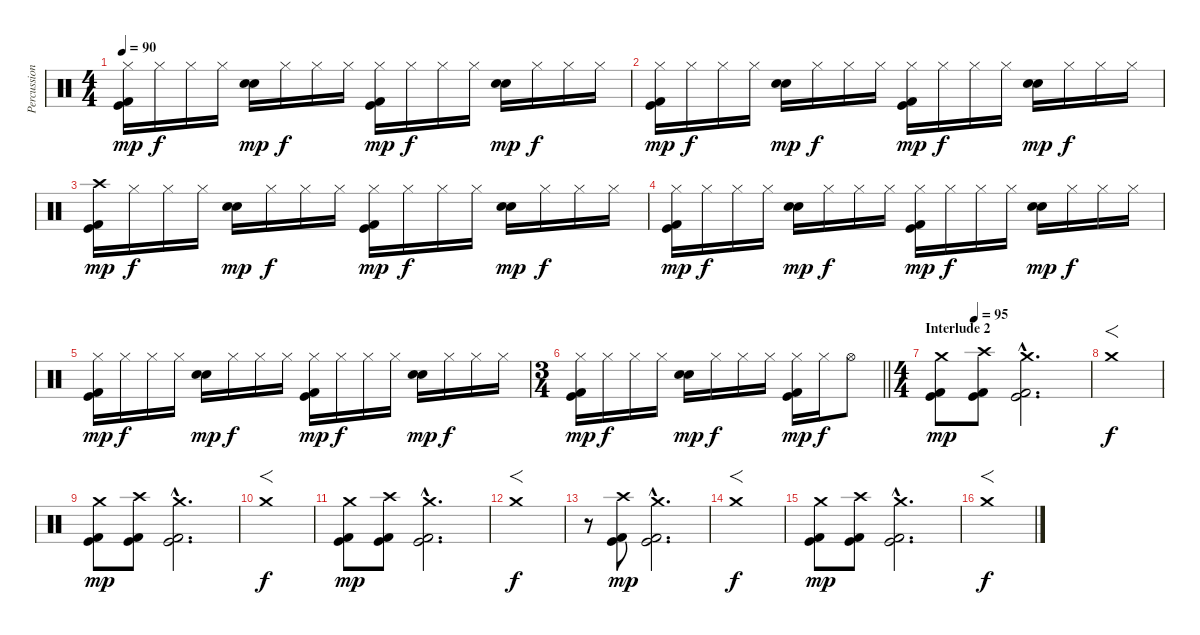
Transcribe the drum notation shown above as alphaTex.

\track ("Percussion" "Percussion") {instrument percussion}
\staff {score}
\articulation defaults
\ts (4 4)
\tempo 90
\clef neutral
\ks c
("Hi-Hat (closed)" "Kick (hit)" "Kick (hit) 2").16{dy mp} "Hi-Hat (closed)".16{dy f} "Hi-Hat (closed)".16 "Hi-Hat (closed)".16 ("Snare (hit) 2" "Electric Snare (hit)").16{dy mp} "Hi-Hat (closed)".16{dy f} "Hi-Hat (closed)".16 "Hi-Hat (closed)".16 ("Hi-Hat (closed)" "Kick (hit)" "Kick (hit) 2").16{dy mp} "Hi-Hat (closed)".16{dy f} "Hi-Hat (closed)".16 "Hi-Hat (closed)".16 ("Snare (hit) 2" "Electric Snare (hit)").16{dy mp} "Hi-Hat (closed)".16{dy f} "Hi-Hat (closed)".16 "Hi-Hat (closed)".16 |
("Hi-Hat (closed)" "Kick (hit)" "Kick (hit) 2").16{dy mp} "Hi-Hat (closed)".16{dy f} "Hi-Hat (closed)".16 "Hi-Hat (closed)".16 ("Snare (hit) 2" "Electric Snare (hit)").16{dy mp} "Hi-Hat (closed)".16{dy f} "Hi-Hat (closed)".16 "Hi-Hat (closed)".16 ("Hi-Hat (closed)" "Kick (hit)" "Kick (hit) 2").16{dy mp} "Hi-Hat (closed)".16{dy f} "Hi-Hat (closed)".16 "Hi-Hat (closed)".16 ("Snare (hit) 2" "Electric Snare (hit)").16{dy mp} "Hi-Hat (closed)".16{dy f} "Hi-Hat (closed)".16 "Hi-Hat (closed)".16 |
("Crash high (hit)" "Kick (hit)" "Kick (hit) 2").16{dy mp} "Hi-Hat (closed)".16{dy f} "Hi-Hat (closed)".16 "Hi-Hat (closed)".16 ("Snare (hit) 2" "Electric Snare (hit)").16{dy mp} "Hi-Hat (closed)".16{dy f} "Hi-Hat (closed)".16 "Hi-Hat (closed)".16 ("Hi-Hat (closed)" "Kick (hit)" "Kick (hit) 2").16{dy mp} "Hi-Hat (closed)".16{dy f} "Hi-Hat (closed)".16 "Hi-Hat (closed)".16 ("Snare (hit) 2" "Electric Snare (hit)").16{dy mp} "Hi-Hat (closed)".16{dy f} "Hi-Hat (closed)".16 "Hi-Hat (closed)".16 |
("Hi-Hat (closed)" "Kick (hit)" "Kick (hit) 2").16{dy mp} "Hi-Hat (closed)".16{dy f} "Hi-Hat (closed)".16 "Hi-Hat (closed)".16 ("Snare (hit) 2" "Electric Snare (hit)").16{dy mp} "Hi-Hat (closed)".16{dy f} "Hi-Hat (closed)".16 "Hi-Hat (closed)".16 ("Hi-Hat (closed)" "Kick (hit)" "Kick (hit) 2").16{dy mp} "Hi-Hat (closed)".16{dy f} "Hi-Hat (closed)".16 "Hi-Hat (closed)".16 ("Snare (hit) 2" "Electric Snare (hit)").16{dy mp} "Hi-Hat (closed)".16{dy f} "Hi-Hat (closed)".16 "Hi-Hat (closed)".16 |
("Hi-Hat (closed)" "Kick (hit)" "Kick (hit) 2").16{dy mp} "Hi-Hat (closed)".16{dy f} "Hi-Hat (closed)".16 "Hi-Hat (closed)".16 ("Snare (hit) 2" "Electric Snare (hit)").16{dy mp} "Hi-Hat (closed)".16{dy f} "Hi-Hat (closed)".16 "Hi-Hat (closed)".16 ("Hi-Hat (closed)" "Kick (hit)" "Kick (hit) 2").16{dy mp} "Hi-Hat (closed)".16{dy f} "Hi-Hat (closed)".16 "Hi-Hat (closed)".16 ("Snare (hit) 2" "Electric Snare (hit)").16{dy mp} "Hi-Hat (closed)".16{dy f} "Hi-Hat (closed)".16 "Hi-Hat (closed)".16 |
\ts (3 4)
\barLineRight lightlight
("Hi-Hat (closed)" "Kick (hit)" "Kick (hit) 2").16{dy mp} "Hi-Hat (closed)".16{dy f} "Hi-Hat (closed)".16 "Hi-Hat (closed)".16 ("Snare (hit) 2" "Electric Snare (hit)").16{dy mp} "Hi-Hat (closed)".16{dy f} "Hi-Hat (closed)".16 "Hi-Hat (closed)".16 ("Hi-Hat (closed)" "Kick (hit)" "Kick (hit) 2").16{dy mp} "Hi-Hat (closed)".16{dy f} "Hi-Hat (open)".8 |
\ts (4 4)
\section ("" "Interlude 2")
\tempo (95 0.25)
("Crash medium (hit)" "Kick (hit)" "Kick (hit) 2").8{dy mp} ("Crash high (hit)" "Kick (hit)" "Kick (hit) 2").8 ("Crash medium (hit)"{hac} "Kick (hit)"{hac} "Kick (hit) 2"{hac}).2{d} |
"Crash medium (hit)".1{f dy f} |
("Crash medium (hit)" "Kick (hit)" "Kick (hit) 2").8{dy mp} ("Crash high (hit)" "Kick (hit)" "Kick (hit) 2").8 ("Crash medium (hit)"{hac} "Kick (hit)"{hac} "Kick (hit) 2"{hac}).2{d} |
"Crash medium (hit)".1{f dy f} |
("Crash medium (hit)" "Kick (hit)" "Kick (hit) 2").8{dy mp} ("Crash high (hit)" "Kick (hit)" "Kick (hit) 2").8 ("Crash medium (hit)"{hac} "Kick (hit)"{hac} "Kick (hit) 2"{hac}).2{d} |
"Crash medium (hit)".1{f dy f} |
r.8 ("Crash high (hit)" "Kick (hit)" "Kick (hit) 2").8{dy mp} ("Crash medium (hit)"{hac} "Kick (hit)"{hac} "Kick (hit) 2"{hac}).2{d} |
"Crash medium (hit)".1{f dy f} |
("Crash medium (hit)" "Kick (hit)" "Kick (hit) 2").8{dy mp} ("Crash high (hit)" "Kick (hit)" "Kick (hit) 2").8 ("Crash medium (hit)"{hac} "Kick (hit)"{hac} "Kick (hit) 2"{hac}).2{d} |
"Crash medium (hit)".1{f dy f}
